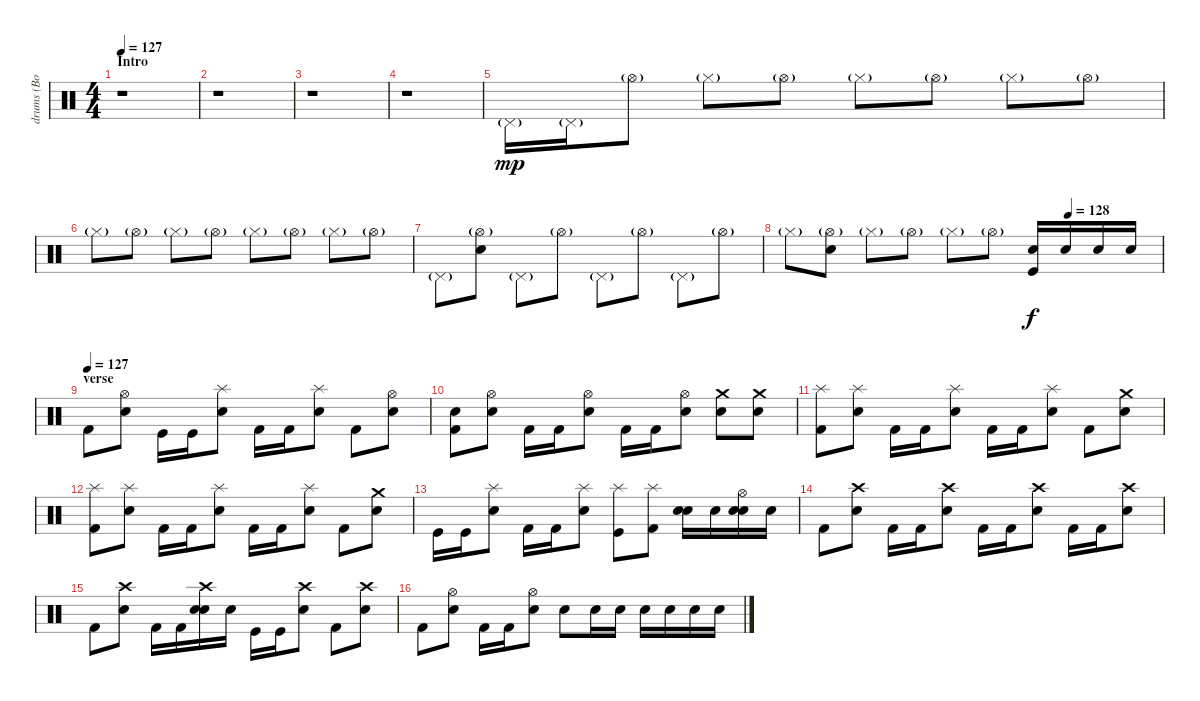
\track (" drums (Bob Bryar)" " drums (Bo") {instrument percussion}
\staff {score}
\articulation defaults
\ts (4 4)
\section ("" "Intro")
\tempo 127
\tempo 125
\tempo 127
\clef neutral
\ks c
r.1{dy mp} |
r.1 |
r.1 |
r.1 |
"Pedal Hi-Hat (hit)"{g}.16 "Pedal Hi-Hat (hit)"{g}.16 "Hi-Hat (open)"{g}.8 "Hi-Hat (closed)"{g}.8 "Hi-Hat (open)"{g}.8 "Hi-Hat (closed)"{g}.8 "Hi-Hat (open)"{g}.8 "Hi-Hat (closed)"{g}.8 "Hi-Hat (open)"{g}.8 |
"Hi-Hat (closed)"{g}.8 "Hi-Hat (open)"{g}.8 "Hi-Hat (closed)"{g}.8 "Hi-Hat (open)"{g}.8 "Hi-Hat (closed)"{g}.8 "Hi-Hat (open)"{g}.8 "Hi-Hat (closed)"{g}.8 "Hi-Hat (open)"{g}.8 |
"Pedal Hi-Hat (hit)"{g}.8 ("Hi-Hat (open)"{g} "Snare (hit) 2").8 "Pedal Hi-Hat (hit)"{g}.8 "Hi-Hat (open)"{g}.8 "Pedal Hi-Hat (hit)"{g}.8 "Hi-Hat (open)"{g}.8 "Pedal Hi-Hat (hit)"{g}.8 "Hi-Hat (open)"{g}.8 |
\tempo (128 0.75)
"Hi-Hat (closed)"{g}.8 ("Hi-Hat (open)"{g} "Snare (hit) 2").8 "Hi-Hat (closed)"{g}.8 "Hi-Hat (open)"{g}.8 "Hi-Hat (closed)"{g}.8 "Hi-Hat (open)"{g}.8 ("Kick (hit)" "Snare (hit) 2").16{dy f} "Snare (hit) 2".16 "Snare (hit) 2".16 "Snare (hit) 2".16 |
\section ("" "verse")
\tempo (127)
"Kick (hit) 2".8{volume 13} ("Hi-Hat (open)" "Snare (hit) 2").8 "Kick (hit)".16 "Kick (hit)".16 ("Splash (hit)" "Snare (hit) 2").8 "Kick (hit) 2".16 "Kick (hit) 2".16 ("Splash (hit)" "Snare (hit) 2").8 "Kick (hit) 2".8 ("Hi-Hat (open)" "Snare (hit) 2").8 |
("Kick (hit) 2" "Electric Snare (hit)").8 ("Hi-Hat (open)" "Snare (hit) 2").8 "Kick (hit) 2".16 "Kick (hit) 2".16 ("Hi-Hat (open)" "Snare (hit) 2").8 "Kick (hit) 2".16 "Kick (hit) 2".16 ("Hi-Hat (open)" "Snare (hit) 2").8 ("Crash medium (hit)" "Snare (hit) 2").8 ("Crash medium (hit)" "Snare (hit) 2").8 |
("Splash (hit)" "Kick (hit) 2").8 ("Splash (hit)" "Snare (hit) 2").8 "Kick (hit) 2".16 "Kick (hit) 2".16 ("Splash (hit)" "Snare (hit) 2").8 "Kick (hit) 2".16 "Kick (hit) 2".16 ("Splash (hit)" "Snare (hit) 2").8 "Kick (hit) 2".8 ("Crash medium (hit)" "Snare (hit) 2").8 |
("Splash (hit)" "Kick (hit) 2").8 ("Splash (hit)" "Snare (hit) 2").8 "Kick (hit) 2".16 "Kick (hit) 2".16 ("Splash (hit)" "Snare (hit) 2").8 "Kick (hit) 2".16 "Kick (hit) 2".16 ("Splash (hit)" "Snare (hit) 2").8 "Kick (hit) 2".8 ("Crash medium (hit)" "Snare (hit) 2").8 |
"Kick (hit)".16 "Kick (hit)".16 ("Splash (hit)" "Snare (hit) 2").8 "Kick (hit) 2".16 "Kick (hit) 2".16 ("Splash (hit)" "Snare (hit) 2").8 ("Splash (hit)" "Kick (hit)").8 ("Splash (hit)" "Kick (hit) 2").8 ("Snare (hit) 2" "Electric Snare (hit)").16 "Snare (hit) 2".16 ("Hi-Hat (open)" "Snare (hit) 2" "Electric Snare (hit)").16 "Snare (hit) 2".16 |
"Kick (hit) 2".8 ("Crash high (hit)" "Snare (hit) 2").8 "Kick (hit) 2".16 "Kick (hit) 2".16 ("Crash high (hit)" "Snare (hit) 2").8 "Kick (hit) 2".16 "Kick (hit) 2".16 ("Crash high (hit)" "Snare (hit) 2").8 "Kick (hit) 2".16 "Kick (hit) 2".16 ("Crash high (hit)" "Snare (hit) 2").8 |
"Kick (hit) 2".8 ("Crash high (hit)" "Electric Snare (hit)").8 "Kick (hit) 2".16 "Kick (hit) 2".16 ("Crash high (hit)" "Electric Snare (hit)" "Snare (hit) 2").16 "Snare (hit) 2".16 "Kick (hit)".16 "Kick (hit)".16 ("Crash high (hit)" "Snare (hit) 2").8 "Kick (hit) 2".8 ("Crash high (hit)" "Snare (hit) 2").8 |
"Kick (hit) 2".8 ("Hi-Hat (open)" "Snare (hit) 2").8 "Kick (hit) 2".16 "Kick (hit) 2".16 ("Hi-Hat (open)" "Snare (hit) 2").8 "Snare (hit) 2".8 "Snare (hit) 2".16 "Snare (hit) 2".16 "Snare (hit) 2".16 "Snare (hit) 2".16 "Snare (hit) 2".16 "Snare (hit) 2".16
